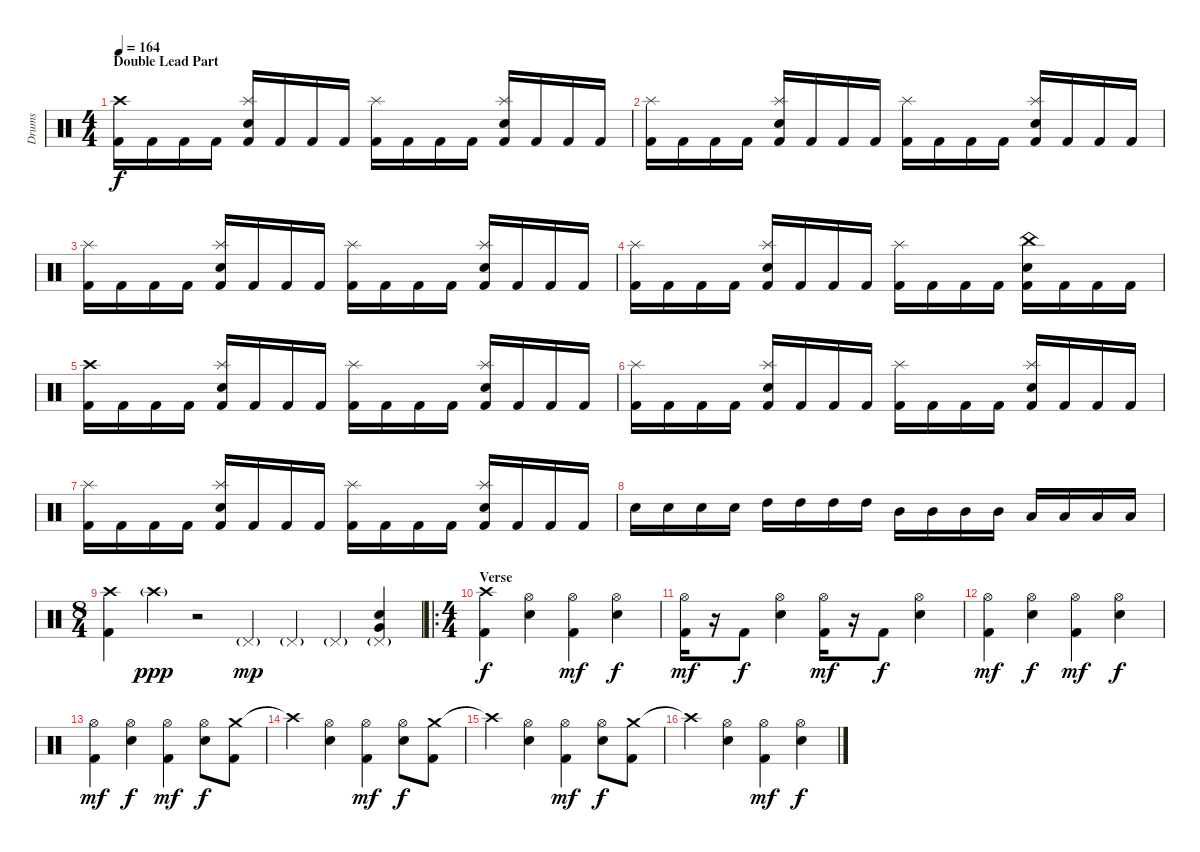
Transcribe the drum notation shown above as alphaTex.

\track ("Drums" "Drums") {instrument percussion}
\staff {score}
\articulation defaults
\ts (4 4)
\section ("" "Double Lead Part")
\tempo 164
\clef neutral
\ks c
("Crash high (hit)" "Kick (hit) 2").16{dy f} "Kick (hit) 2".16 "Kick (hit) 2".16 "Kick (hit) 2".16 ("Splash (hit)" "Electric Snare (hit)" "Kick (hit) 2").16 "Kick (hit) 2".16 "Kick (hit) 2".16 "Kick (hit) 2".16 ("Splash (hit)" "Kick (hit) 2").16 "Kick (hit) 2".16 "Kick (hit) 2".16 "Kick (hit) 2".16 ("Splash (hit)" "Electric Snare (hit)" "Kick (hit) 2").16 "Kick (hit) 2".16 "Kick (hit) 2".16 "Kick (hit) 2".16 |
("Splash (hit)" "Kick (hit) 2").16 "Kick (hit) 2".16 "Kick (hit) 2".16 "Kick (hit) 2".16 ("Splash (hit)" "Electric Snare (hit)" "Kick (hit) 2").16 "Kick (hit) 2".16 "Kick (hit) 2".16 "Kick (hit) 2".16 ("Splash (hit)" "Kick (hit) 2").16 "Kick (hit) 2".16 "Kick (hit) 2".16 "Kick (hit) 2".16 ("Splash (hit)" "Electric Snare (hit)" "Kick (hit) 2").16 "Kick (hit) 2".16 "Kick (hit) 2".16 "Kick (hit) 2".16 |
("Splash (hit)" "Kick (hit) 2").16 "Kick (hit) 2".16 "Kick (hit) 2".16 "Kick (hit) 2".16 ("Splash (hit)" "Electric Snare (hit)" "Kick (hit) 2").16 "Kick (hit) 2".16 "Kick (hit) 2".16 "Kick (hit) 2".16 ("Splash (hit)" "Kick (hit) 2").16 "Kick (hit) 2".16 "Kick (hit) 2".16 "Kick (hit) 2".16 ("Splash (hit)" "Electric Snare (hit)" "Kick (hit) 2").16 "Kick (hit) 2".16 "Kick (hit) 2".16 "Kick (hit) 2".16 |
("Splash (hit)" "Kick (hit) 2").16 "Kick (hit) 2".16 "Kick (hit) 2".16 "Kick (hit) 2".16 ("Splash (hit)" "Electric Snare (hit)" "Kick (hit) 2").16 "Kick (hit) 2".16 "Kick (hit) 2".16 "Kick (hit) 2".16 ("Splash (hit)" "Kick (hit) 2").16 "Kick (hit) 2".16 "Kick (hit) 2".16 "Kick (hit) 2".16 ("China (hit)" "Electric Snare (hit)" "Kick (hit) 2").16 "Kick (hit) 2".16 "Kick (hit) 2".16 "Kick (hit) 2".16 |
("Crash high (hit)" "Kick (hit) 2").16 "Kick (hit) 2".16 "Kick (hit) 2".16 "Kick (hit) 2".16 ("Splash (hit)" "Electric Snare (hit)" "Kick (hit) 2").16 "Kick (hit) 2".16 "Kick (hit) 2".16 "Kick (hit) 2".16 ("Splash (hit)" "Kick (hit) 2").16 "Kick (hit) 2".16 "Kick (hit) 2".16 "Kick (hit) 2".16 ("Splash (hit)" "Electric Snare (hit)" "Kick (hit) 2").16 "Kick (hit) 2".16 "Kick (hit) 2".16 "Kick (hit) 2".16 |
("Splash (hit)" "Kick (hit) 2").16 "Kick (hit) 2".16 "Kick (hit) 2".16 "Kick (hit) 2".16 ("Splash (hit)" "Electric Snare (hit)" "Kick (hit) 2").16 "Kick (hit) 2".16 "Kick (hit) 2".16 "Kick (hit) 2".16 ("Splash (hit)" "Kick (hit) 2").16 "Kick (hit) 2".16 "Kick (hit) 2".16 "Kick (hit) 2".16 ("Splash (hit)" "Electric Snare (hit)" "Kick (hit) 2").16 "Kick (hit) 2".16 "Kick (hit) 2".16 "Kick (hit) 2".16 |
("Splash (hit)" "Kick (hit) 2").16 "Kick (hit) 2".16 "Kick (hit) 2".16 "Kick (hit) 2".16 ("Splash (hit)" "Electric Snare (hit)" "Kick (hit) 2").16 "Kick (hit) 2".16 "Kick (hit) 2".16 "Kick (hit) 2".16 ("Splash (hit)" "Kick (hit) 2").16 "Kick (hit) 2".16 "Kick (hit) 2".16 "Kick (hit) 2".16 ("Splash (hit)" "Electric Snare (hit)" "Kick (hit) 2").16 "Kick (hit) 2".16 "Kick (hit) 2".16 "Kick (hit) 2".16 |
"Electric Snare (hit)".16 "Electric Snare (hit)".16 "Electric Snare (hit)".16 "Electric Snare (hit)".16 "High Tom (hit)".16 "High Tom (hit)".16 "High Tom (hit)".16 "High Tom (hit)".16 "Mid Tom (hit)".16 "Mid Tom (hit)".16 "Mid Tom (hit)".16 "Mid Tom (hit)".16 "Low Tom (hit)".16 "Low Tom (hit)".16 "Low Tom (hit)".16 "Low Tom (hit)".16 |
\ts (8 4)
("Crash high (hit)" "Kick (hit) 2").4 "Crash high (hit)"{g}.4{dy ppp} r.2 "Pedal Hi-Hat (hit)"{g}.4{dy mp} "Pedal Hi-Hat (hit)"{g}.4 "Pedal Hi-Hat (hit)"{g}.4 ("Very Low Tom (hit)" "Electric Snare (hit)" "Pedal Hi-Hat (hit)"{g}).4 |
\ro
\ts (4 4)
\section ("" "Verse")
("Crash high (hit)" "Kick (hit) 2").4{dy f} ("Hi-Hat (open)" "Electric Snare (hit)").4 ("Hi-Hat (open)" "Kick (hit) 2").4{dy mf} ("Hi-Hat (open)" "Electric Snare (hit)").4{dy f} |
("Hi-Hat (open)" "Kick (hit) 2").16{dy mf} r.16 "Kick (hit) 2".8{dy f} ("Hi-Hat (open)" "Electric Snare (hit)").4 ("Hi-Hat (open)" "Kick (hit) 2").16{dy mf} r.16 "Kick (hit) 2".8{dy f} ("Hi-Hat (open)" "Electric Snare (hit)").4 |
("Hi-Hat (open)" "Kick (hit) 2").4{dy mf} ("Hi-Hat (open)" "Electric Snare (hit)").4{dy f} ("Hi-Hat (open)" "Kick (hit) 2").4{dy mf} ("Hi-Hat (open)" "Electric Snare (hit)").4{dy f} |
("Hi-Hat (open)" "Kick (hit) 2").4{dy mf} ("Hi-Hat (open)" "Electric Snare (hit)").4{dy f} ("Hi-Hat (open)" "Kick (hit) 2").4{dy mf} ("Hi-Hat (open)" "Electric Snare (hit)").8{dy f} ("Crash medium (hit)" "Kick (hit) 2").8 |
"Crash high (hit)"{t}.4 ("Hi-Hat (open)" "Electric Snare (hit)").4 ("Hi-Hat (open)" "Kick (hit) 2").4{dy mf} ("Hi-Hat (open)" "Electric Snare (hit)").8{dy f} ("Crash medium (hit)" "Kick (hit) 2").8 |
"Crash high (hit)"{t}.4 ("Hi-Hat (open)" "Electric Snare (hit)").4 ("Hi-Hat (open)" "Kick (hit) 2").4{dy mf} ("Hi-Hat (open)" "Electric Snare (hit)").8{dy f} ("Crash medium (hit)" "Kick (hit) 2").8 |
"Crash high (hit)"{t}.4 ("Hi-Hat (open)" "Electric Snare (hit)").4 ("Hi-Hat (open)" "Kick (hit) 2").4{dy mf} ("Hi-Hat (open)" "Electric Snare (hit)").4{dy f}
